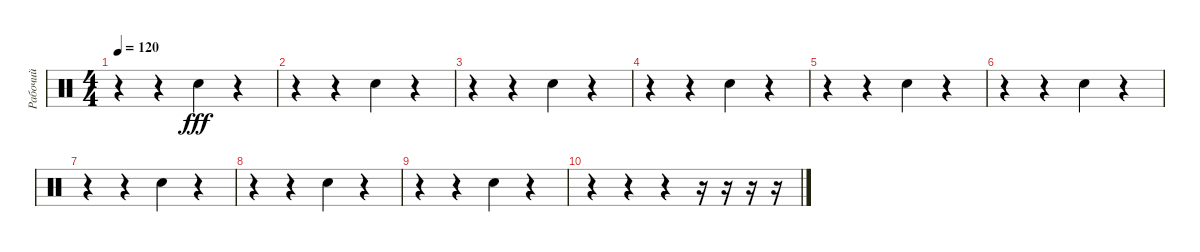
\track ("Рабочий" "Рабочий") {instrument percussion}
\staff {score}
\articulation defaults
\ts (4 4)
\tempo 120
\clef neutral
\ks c
r.4{dy fff} r.4 "Snare (hit) 2".4 r.4 |
r.4 r.4 "Snare (hit) 2".4 r.4 |
r.4 r.4 "Snare (hit) 2".4 r.4 |
r.4 r.4 "Snare (hit) 2".4 r.4 |
r.4 r.4 "Snare (hit) 2".4 r.4 |
r.4 r.4 "Snare (hit) 2".4 r.4 |
r.4 r.4 "Snare (hit) 2".4 r.4 |
r.4 r.4 "Snare (hit) 2".4 r.4 |
r.4 r.4 "Snare (hit) 2".4 r.4 |
r.4 r.4 r.4 r.16 r.16 r.16 r.16
